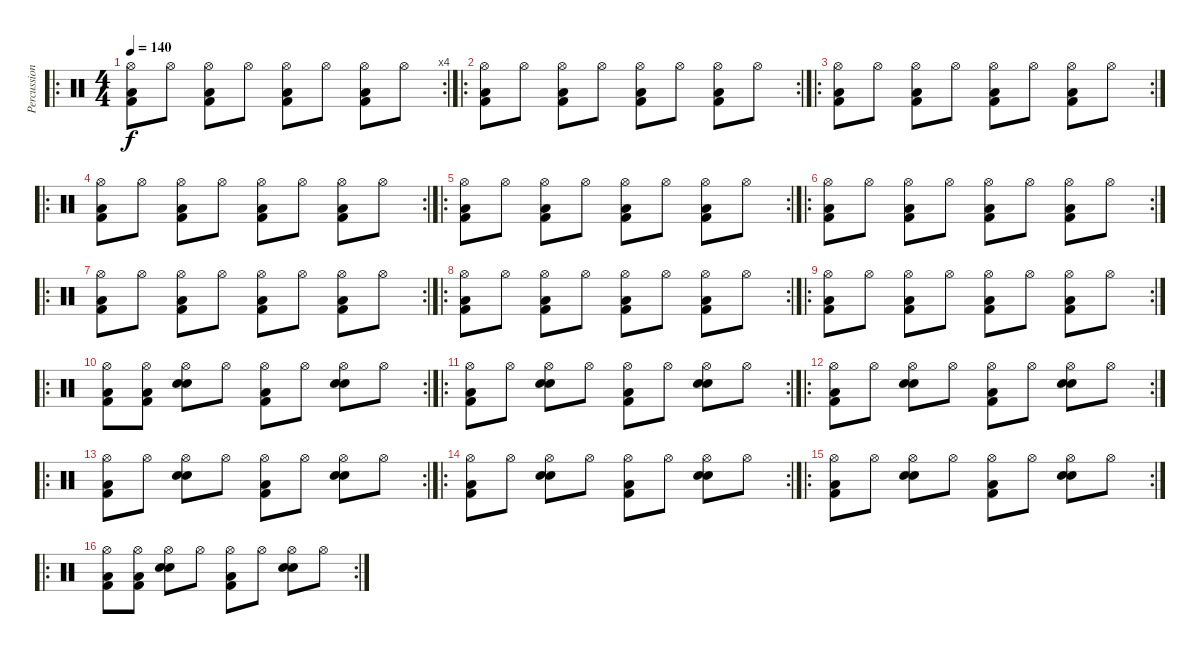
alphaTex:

\track ("Percussions" "Percussion") {instrument percussion}
\staff {score}
\articulation defaults
\ro
\rc 4
\ts (4 4)
\tempo 140
\clef neutral
\ks c
("Hi-Hat (open)" "Kick (hit) 2" "Low Floor Tom (hit)").8{dy f} "Hi-Hat (open)".8 ("Hi-Hat (open)" "Kick (hit) 2" "Low Floor Tom (hit)").8 "Hi-Hat (open)".8 ("Hi-Hat (open)" "Kick (hit) 2" "Low Floor Tom (hit)").8 "Hi-Hat (open)".8 ("Hi-Hat (open)" "Kick (hit) 2" "Low Floor Tom (hit)").8 "Hi-Hat (open)".8 |
\ro
\rc 2
("Hi-Hat (open)" "Kick (hit) 2" "Low Floor Tom (hit)").8 "Hi-Hat (open)".8 ("Hi-Hat (open)" "Kick (hit) 2" "Low Floor Tom (hit)").8 "Hi-Hat (open)".8 ("Hi-Hat (open)" "Kick (hit) 2" "Low Floor Tom (hit)").8 "Hi-Hat (open)".8 ("Hi-Hat (open)" "Kick (hit) 2" "Low Floor Tom (hit)").8 "Hi-Hat (open)".8 |
\ro
\rc 2
("Hi-Hat (open)" "Kick (hit) 2" "Low Floor Tom (hit)").8 "Hi-Hat (open)".8 ("Hi-Hat (open)" "Kick (hit) 2" "Low Floor Tom (hit)").8 "Hi-Hat (open)".8 ("Hi-Hat (open)" "Kick (hit) 2" "Low Floor Tom (hit)").8 "Hi-Hat (open)".8 ("Hi-Hat (open)" "Kick (hit) 2" "Low Floor Tom (hit)").8 "Hi-Hat (open)".8 |
\ro
\rc 2
("Hi-Hat (open)" "Kick (hit) 2" "Low Floor Tom (hit)").8 "Hi-Hat (open)".8 ("Hi-Hat (open)" "Kick (hit) 2" "Low Floor Tom (hit)").8 "Hi-Hat (open)".8 ("Hi-Hat (open)" "Kick (hit) 2" "Low Floor Tom (hit)").8 "Hi-Hat (open)".8 ("Hi-Hat (open)" "Kick (hit) 2" "Low Floor Tom (hit)").8 "Hi-Hat (open)".8 |
\ro
\rc 2
("Hi-Hat (open)" "Kick (hit) 2" "Low Floor Tom (hit)").8 "Hi-Hat (open)".8 ("Hi-Hat (open)" "Kick (hit) 2" "Low Floor Tom (hit)").8 "Hi-Hat (open)".8 ("Hi-Hat (open)" "Kick (hit) 2" "Low Floor Tom (hit)").8 "Hi-Hat (open)".8 ("Hi-Hat (open)" "Kick (hit) 2" "Low Floor Tom (hit)").8 "Hi-Hat (open)".8 |
\ro
\rc 2
("Hi-Hat (open)" "Kick (hit) 2" "Low Floor Tom (hit)").8 "Hi-Hat (open)".8 ("Hi-Hat (open)" "Kick (hit) 2" "Low Floor Tom (hit)").8 "Hi-Hat (open)".8 ("Hi-Hat (open)" "Kick (hit) 2" "Low Floor Tom (hit)").8 "Hi-Hat (open)".8 ("Hi-Hat (open)" "Kick (hit) 2" "Low Floor Tom (hit)").8 "Hi-Hat (open)".8 |
\ro
\rc 2
("Hi-Hat (open)" "Kick (hit) 2" "Low Floor Tom (hit)").8 "Hi-Hat (open)".8 ("Hi-Hat (open)" "Kick (hit) 2" "Low Floor Tom (hit)").8 "Hi-Hat (open)".8 ("Hi-Hat (open)" "Kick (hit) 2" "Low Floor Tom (hit)").8 "Hi-Hat (open)".8 ("Hi-Hat (open)" "Kick (hit) 2" "Low Floor Tom (hit)").8 "Hi-Hat (open)".8 |
\ro
\rc 2
("Hi-Hat (open)" "Kick (hit) 2" "Low Floor Tom (hit)").8 "Hi-Hat (open)".8 ("Hi-Hat (open)" "Kick (hit) 2" "Low Floor Tom (hit)").8 "Hi-Hat (open)".8 ("Hi-Hat (open)" "Kick (hit) 2" "Low Floor Tom (hit)").8 "Hi-Hat (open)".8 ("Hi-Hat (open)" "Kick (hit) 2" "Low Floor Tom (hit)").8 "Hi-Hat (open)".8 |
\ro
\rc 2
("Hi-Hat (open)" "Kick (hit) 2" "Low Floor Tom (hit)").8 "Hi-Hat (open)".8 ("Hi-Hat (open)" "Kick (hit) 2" "Low Floor Tom (hit)").8 "Hi-Hat (open)".8 ("Hi-Hat (open)" "Kick (hit) 2" "Low Floor Tom (hit)").8 "Hi-Hat (open)".8 ("Hi-Hat (open)" "Kick (hit) 2" "Low Floor Tom (hit)").8 "Hi-Hat (open)".8 |
\ro
\rc 2
("Hi-Hat (open)" "Kick (hit) 2" "Low Floor Tom (hit)").8 ("Hi-Hat (open)" "Kick (hit) 2" "Low Floor Tom (hit)").8 ("Hi-Hat (open)" "Snare (hit) 2" "Electric Snare (hit)").8 "Hi-Hat (open)".8 ("Hi-Hat (open)" "Kick (hit) 2" "Low Floor Tom (hit)").8 "Hi-Hat (open)".8 ("Hi-Hat (open)" "Snare (hit) 2" "Electric Snare (hit)").8 "Hi-Hat (open)".8 |
\ro
\rc 2
("Hi-Hat (open)" "Kick (hit) 2" "Low Floor Tom (hit)").8 "Hi-Hat (open)".8 ("Hi-Hat (open)" "Snare (hit) 2" "Electric Snare (hit)").8 "Hi-Hat (open)".8 ("Hi-Hat (open)" "Kick (hit) 2" "Low Floor Tom (hit)").8 "Hi-Hat (open)".8 ("Hi-Hat (open)" "Snare (hit) 2" "Electric Snare (hit)").8 "Hi-Hat (open)".8 |
\ro
\rc 2
("Hi-Hat (open)" "Kick (hit) 2" "Low Floor Tom (hit)").8 "Hi-Hat (open)".8 ("Hi-Hat (open)" "Snare (hit) 2" "Electric Snare (hit)").8 "Hi-Hat (open)".8 ("Hi-Hat (open)" "Kick (hit) 2" "Low Floor Tom (hit)").8 "Hi-Hat (open)".8 ("Hi-Hat (open)" "Snare (hit) 2" "Electric Snare (hit)").8 "Hi-Hat (open)".8 |
\ro
\rc 2
("Hi-Hat (open)" "Kick (hit) 2" "Low Floor Tom (hit)").8 "Hi-Hat (open)".8 ("Hi-Hat (open)" "Snare (hit) 2" "Electric Snare (hit)").8 "Hi-Hat (open)".8 ("Hi-Hat (open)" "Kick (hit) 2" "Low Floor Tom (hit)").8 "Hi-Hat (open)".8 ("Hi-Hat (open)" "Snare (hit) 2" "Electric Snare (hit)").8 "Hi-Hat (open)".8 |
\ro
\rc 2
("Hi-Hat (open)" "Kick (hit) 2" "Low Floor Tom (hit)").8 "Hi-Hat (open)".8 ("Hi-Hat (open)" "Snare (hit) 2" "Electric Snare (hit)").8 "Hi-Hat (open)".8 ("Hi-Hat (open)" "Kick (hit) 2" "Low Floor Tom (hit)").8 "Hi-Hat (open)".8 ("Hi-Hat (open)" "Snare (hit) 2" "Electric Snare (hit)").8 "Hi-Hat (open)".8 |
\ro
\rc 2
("Hi-Hat (open)" "Kick (hit) 2" "Low Floor Tom (hit)").8 "Hi-Hat (open)".8 ("Hi-Hat (open)" "Snare (hit) 2" "Electric Snare (hit)").8 "Hi-Hat (open)".8 ("Hi-Hat (open)" "Kick (hit) 2" "Low Floor Tom (hit)").8 "Hi-Hat (open)".8 ("Hi-Hat (open)" "Snare (hit) 2" "Electric Snare (hit)").8 "Hi-Hat (open)".8 |
\ro
\rc 2
("Hi-Hat (open)" "Kick (hit) 2" "Low Floor Tom (hit)").8 ("Hi-Hat (open)" "Kick (hit) 2" "Low Floor Tom (hit)").8 ("Hi-Hat (open)" "Snare (hit) 2" "Electric Snare (hit)").8 "Hi-Hat (open)".8 ("Hi-Hat (open)" "Kick (hit) 2" "Low Floor Tom (hit)").8 "Hi-Hat (open)".8 ("Hi-Hat (open)" "Snare (hit) 2" "Electric Snare (hit)").8 "Hi-Hat (open)".8
